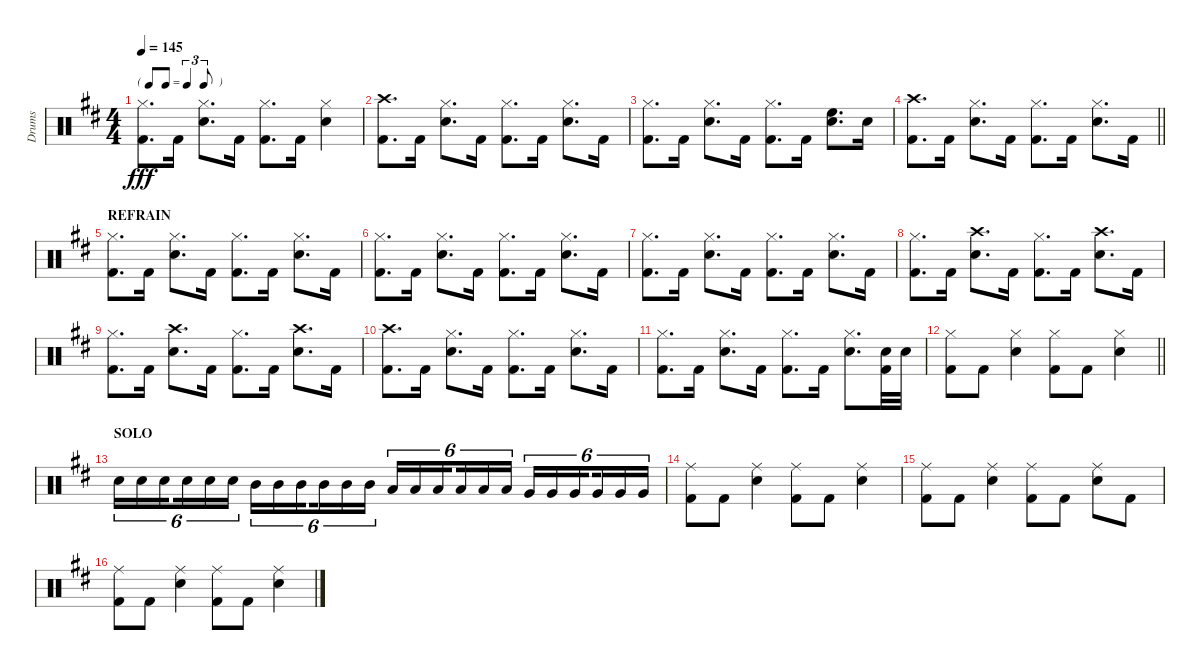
\track ("Drums" "Drums") {instrument percussion}
\staff {score}
\articulation defaults
\ts (4 4)
\tf triplet8th
\tempo 145
\clef neutral
\ks d
("Hi-Hat (closed)" "Kick (hit) 2").8{d dy fff} "Kick (hit) 2".16 ("Hi-Hat (closed)" "Snare (hit) 2").8{d} "Kick (hit) 2".16 ("Hi-Hat (closed)" "Kick (hit) 2").8{d} "Kick (hit) 2".16 ("Hi-Hat (closed)" "Snare (hit) 2").4 |
("Crash high (hit)" "Kick (hit) 2").8{d} "Kick (hit) 2".16 ("Hi-Hat (closed)" "Snare (hit) 2").8{d} "Kick (hit) 2".16 ("Hi-Hat (closed)" "Kick (hit) 2").8{d} "Kick (hit) 2".16 ("Hi-Hat (closed)" "Snare (hit) 2").8{d} "Kick (hit) 2".16 |
("Hi-Hat (closed)" "Kick (hit) 2").8{d} "Kick (hit) 2".16 ("Hi-Hat (closed)" "Snare (hit) 2").8{d} "Kick (hit) 2".16 ("Hi-Hat (closed)" "Kick (hit) 2").8{d} "Kick (hit) 2".16 ("High Floor Tom (hit)" "Snare (hit) 2").8{d} "Snare (hit) 2".16 |
\barLineRight lightlight
("Crash high (hit)" "Kick (hit) 2").8{d} "Kick (hit) 2".16 ("Hi-Hat (closed)" "Snare (hit) 2").8{d} "Kick (hit) 2".16 ("Hi-Hat (closed)" "Kick (hit) 2").8{d} "Kick (hit) 2".16 ("Hi-Hat (closed)" "Snare (hit) 2").8{d} "Kick (hit) 2".16 |
\section ("" "REFRAIN")
("Hi-Hat (closed)" "Kick (hit) 2").8{d} "Kick (hit) 2".16 ("Hi-Hat (closed)" "Snare (hit) 2").8{d} "Kick (hit) 2".16 ("Hi-Hat (closed)" "Kick (hit) 2").8{d} "Kick (hit) 2".16 ("Hi-Hat (closed)" "Snare (hit) 2").8{d} "Kick (hit) 2".16 |
("Hi-Hat (closed)" "Kick (hit) 2").8{d} "Kick (hit) 2".16 ("Hi-Hat (closed)" "Snare (hit) 2").8{d} "Kick (hit) 2".16 ("Hi-Hat (closed)" "Kick (hit) 2").8{d} "Kick (hit) 2".16 ("Hi-Hat (closed)" "Snare (hit) 2").8{d} "Kick (hit) 2".16 |
("Hi-Hat (closed)" "Kick (hit) 2").8{d} "Kick (hit) 2".16 ("Hi-Hat (closed)" "Snare (hit) 2").8{d} "Kick (hit) 2".16 ("Hi-Hat (closed)" "Kick (hit) 2").8{d} "Kick (hit) 2".16 ("Hi-Hat (closed)" "Snare (hit) 2").8{d} "Kick (hit) 2".16 |
("Hi-Hat (closed)" "Kick (hit) 2").8{d} "Kick (hit) 2".16 ("Crash high (hit)" "Snare (hit) 2").8{d} "Kick (hit) 2".16 ("Hi-Hat (closed)" "Kick (hit) 2").8{d} "Kick (hit) 2".16 ("Crash high (hit)" "Snare (hit) 2").8{d} "Kick (hit) 2".16 |
("Hi-Hat (closed)" "Kick (hit) 2").8{d} "Kick (hit) 2".16 ("Crash high (hit)" "Snare (hit) 2").8{d} "Kick (hit) 2".16 ("Hi-Hat (closed)" "Kick (hit) 2").8{d} "Kick (hit) 2".16 ("Crash high (hit)" "Snare (hit) 2").8{d} "Kick (hit) 2".16 |
("Crash high (hit)" "Kick (hit) 2").8{d} "Kick (hit) 2".16 ("Hi-Hat (closed)" "Snare (hit) 2").8{d} "Kick (hit) 2".16 ("Hi-Hat (closed)" "Kick (hit) 2").8{d} "Kick (hit) 2".16 ("Hi-Hat (closed)" "Snare (hit) 2").8{d} "Kick (hit) 2".16 |
("Hi-Hat (closed)" "Kick (hit) 2").8{d} "Kick (hit) 2".16 ("Hi-Hat (closed)" "Snare (hit) 2").8{d} "Kick (hit) 2".16 ("Hi-Hat (closed)" "Kick (hit) 2").8{d} "Kick (hit) 2".16 ("Hi-Hat (closed)" "Snare (hit) 2").8{d} ("Snare (hit) 2" "Kick (hit) 2").32 "Snare (hit) 2".32 |
\barLineRight lightlight
("Hi-Hat (closed)" "Kick (hit) 2").8 "Kick (hit) 2".8 ("Hi-Hat (closed)" "Snare (hit) 2").4 ("Hi-Hat (closed)" "Kick (hit) 2").8 "Kick (hit) 2".8 ("Hi-Hat (closed)" "Snare (hit) 2").4 |
\section ("" "SOLO")
"Snare (hit) 2".16{tu (6 4)} "Snare (hit) 2".16{tu (6 4)} "Snare (hit) 2".16{tu (6 4) beam splitsecondary} "Snare (hit) 2".16{tu (6 4)} "Snare (hit) 2".16{tu (6 4)} "Snare (hit) 2".16{tu (6 4)} "Mid Tom (hit)".16{tu (6 4)} "Mid Tom (hit)".16{tu (6 4)} "Mid Tom (hit)".16{tu (6 4) beam splitsecondary} "Mid Tom (hit)".16{tu (6 4)} "Mid Tom (hit)".16{tu (6 4)} "Mid Tom (hit)".16{tu (6 4)} "Low Tom (hit)".16{tu (6 4)} "Low Tom (hit)".16{tu (6 4)} "Low Tom (hit)".16{tu (6 4) beam splitsecondary} "Low Tom (hit)".16{tu (6 4)} "Low Tom (hit)".16{tu (6 4)} "Low Tom (hit)".16{tu (6 4)} "Very Low Tom (hit)".16{tu (6 4)} "Very Low Tom (hit)".16{tu (6 4)} "Very Low Tom (hit)".16{tu (6 4) beam splitsecondary} "Very Low Tom (hit)".16{tu (6 4)} "Very Low Tom (hit)".16{tu (6 4)} "Very Low Tom (hit)".16{tu (6 4)} |
("Ride (middle)" "Kick (hit) 2").8 "Kick (hit) 2".8 ("Ride (middle)" "Snare (hit) 2").4 ("Ride (middle)" "Kick (hit) 2").8 "Kick (hit) 2".8 ("Ride (middle)" "Snare (hit) 2").4 |
("Ride (middle)" "Kick (hit) 2").8 "Kick (hit) 2".8 ("Ride (middle)" "Snare (hit) 2").4 ("Ride (middle)" "Kick (hit) 2").8 "Kick (hit) 2".8 ("Ride (middle)" "Snare (hit) 2").8 "Kick (hit) 2".8 |
("Ride (middle)" "Kick (hit) 2").8 "Kick (hit) 2".8 ("Ride (middle)" "Snare (hit) 2").4 ("Ride (middle)" "Kick (hit) 2").8 "Kick (hit) 2".8 ("Ride (middle)" "Snare (hit) 2").4
